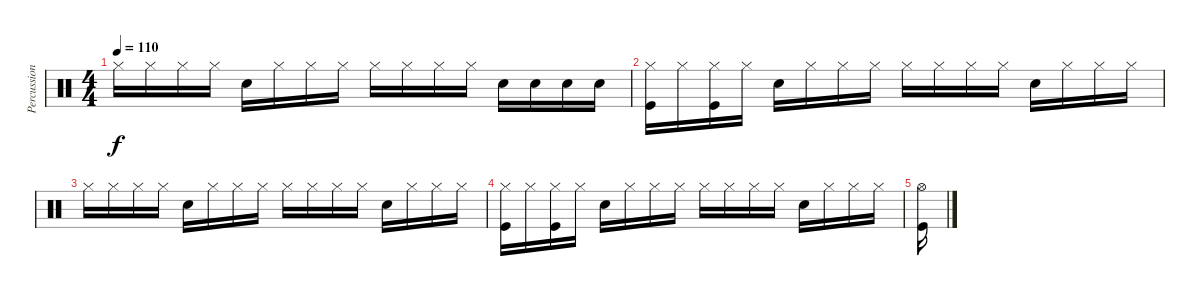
\track ("Percussion" "Percussion") {instrument percussion}
\staff {score}
\articulation defaults
\ts (4 4)
\tempo 110
\clef neutral
\ks c "Hi-Hat (closed)".16{dy f} "Hi-Hat (closed)".16 "Hi-Hat (closed)".16 "Hi-Hat (closed)".16 "Electric Snare (hit)".16 "Hi-Hat (closed)".16 "Hi-Hat (closed)".16 "Hi-Hat (closed)".16 "Hi-Hat (closed)".16 "Hi-Hat (closed)".16 "Hi-Hat (closed)".16 "Hi-Hat (closed)".16 "Electric Snare (hit)".16 "Electric Snare (hit)".16 "Electric Snare (hit)".16 "Electric Snare (hit)".16
|
("Hi-Hat (closed)" "Kick (hit)").16 "Hi-Hat (closed)".16 ("Hi-Hat (closed)" "Kick (hit)").16 "Hi-Hat (closed)".16 "Electric Snare (hit)".16 "Hi-Hat (closed)".16 "Hi-Hat (closed)".16 "Hi-Hat (closed)".16 "Hi-Hat (closed)".16 "Hi-Hat (closed)".16 "Hi-Hat (closed)".16 "Hi-Hat (closed)".16 "Electric Snare (hit)".16 "Hi-Hat (closed)".16 "Hi-Hat (closed)".16 "Hi-Hat (closed)".16 |
"Hi-Hat (closed)".16 "Hi-Hat (closed)".16 "Hi-Hat (closed)".16 "Hi-Hat (closed)".16 "Electric Snare (hit)".16 "Hi-Hat (closed)".16 "Hi-Hat (closed)".16 "Hi-Hat (closed)".16 "Hi-Hat (closed)".16 "Hi-Hat (closed)".16 "Hi-Hat (closed)".16 "Hi-Hat (closed)".16 "Electric Snare (hit)".16 "Hi-Hat (closed)".16 "Hi-Hat (closed)".16 "Hi-Hat (closed)".16 |
("Hi-Hat (closed)" "Kick (hit)").16 "Hi-Hat (closed)".16 ("Hi-Hat (closed)" "Kick (hit)").16 "Hi-Hat (closed)".16 "Electric Snare (hit)".16 "Hi-Hat (closed)".16 "Hi-Hat (closed)".16 "Hi-Hat (closed)".16 "Hi-Hat (closed)".16 "Hi-Hat (closed)".16 "Hi-Hat (closed)".16 "Hi-Hat (closed)".16 "Electric Snare (hit)".16 "Hi-Hat (closed)".16 "Hi-Hat (closed)".16 "Hi-Hat (closed)".16 |
("Hi-Hat (open)" "Kick (hit)").16
